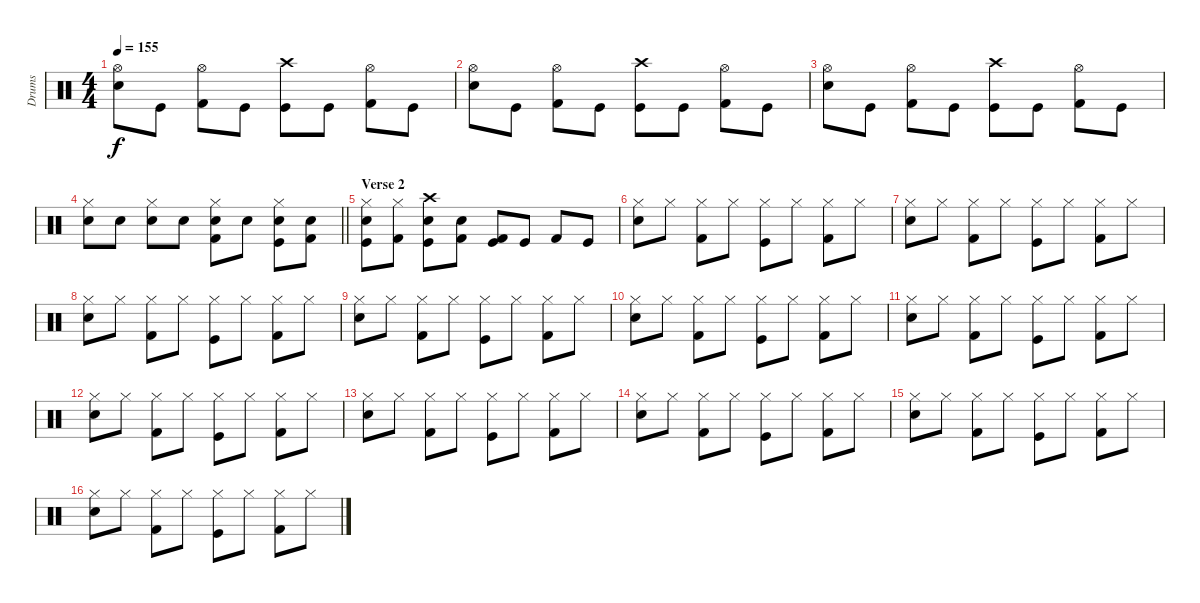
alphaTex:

\track ("Drums" "Drums") {instrument percussion}
\staff {score}
\articulation defaults
\ts (4 4)
\tempo 155
\clef neutral
\ks c
("Electric Snare (hit)" "Hi-Hat (open)").8{dy f} "Kick (hit)".8 ("Kick (hit) 2" "Hi-Hat (open)").8 "Kick (hit)".8 ("Kick (hit)" "Crash high (hit)").8 "Kick (hit)".8 ("Kick (hit) 2" "Hi-Hat (open)").8 "Kick (hit)".8 |
("Electric Snare (hit)" "Hi-Hat (open)").8 "Kick (hit)".8 ("Kick (hit) 2" "Hi-Hat (open)").8 "Kick (hit)".8 ("Kick (hit)" "Crash high (hit)").8 "Kick (hit)".8 ("Kick (hit) 2" "Hi-Hat (open)").8 "Kick (hit)".8 |
("Electric Snare (hit)" "Hi-Hat (open)").8 "Kick (hit)".8 ("Kick (hit) 2" "Hi-Hat (open)").8 "Kick (hit)".8 ("Kick (hit)" "Crash high (hit)").8 "Kick (hit)".8 ("Kick (hit) 2" "Hi-Hat (open)").8 "Kick (hit)".8 |
\barLineRight lightlight
("Electric Snare (hit)" "Hi-Hat (closed)").8 "Electric Snare (hit)".8 ("Electric Snare (hit)" "Hi-Hat (closed)").8 "Electric Snare (hit)".8 ("Electric Snare (hit)" "Kick (hit) 2" "Hi-Hat (closed)").8 "Electric Snare (hit)".8 ("Electric Snare (hit)" "Kick (hit)" "Hi-Hat (closed)").8 ("Electric Snare (hit)" "Kick (hit) 2").8 |
\section ("" "Verse 2")
("Electric Snare (hit)" "Kick (hit)" "Hi-Hat (closed)").8 ("Kick (hit) 2" "Hi-Hat (closed)").8 ("Electric Snare (hit)" "Kick (hit)" "Crash high (hit)").8 ("Electric Snare (hit)" "Kick (hit) 2").8 ("Kick (hit)" "Kick (hit) 2").8 "Kick (hit)".8 "Kick (hit) 2".8 "Kick (hit)".8 |
("Electric Snare (hit)" "Hi-Hat (closed)").8 "Hi-Hat (closed)".8 ("Kick (hit) 2" "Hi-Hat (closed)").8 "Hi-Hat (closed)".8 ("Kick (hit)" "Hi-Hat (closed)").8 "Hi-Hat (closed)".8 ("Kick (hit) 2" "Hi-Hat (closed)").8 "Hi-Hat (closed)".8 |
("Electric Snare (hit)" "Hi-Hat (closed)").8 "Hi-Hat (closed)".8 ("Kick (hit) 2" "Hi-Hat (closed)").8 "Hi-Hat (closed)".8 ("Kick (hit)" "Hi-Hat (closed)").8 "Hi-Hat (closed)".8 ("Kick (hit) 2" "Hi-Hat (closed)").8 "Hi-Hat (closed)".8 |
("Electric Snare (hit)" "Hi-Hat (closed)").8 "Hi-Hat (closed)".8 ("Kick (hit) 2" "Hi-Hat (closed)").8 "Hi-Hat (closed)".8 ("Kick (hit)" "Hi-Hat (closed)").8 "Hi-Hat (closed)".8 ("Kick (hit) 2" "Hi-Hat (closed)").8 "Hi-Hat (closed)".8 |
("Electric Snare (hit)" "Hi-Hat (closed)").8 "Hi-Hat (closed)".8 ("Kick (hit) 2" "Hi-Hat (closed)").8 "Hi-Hat (closed)".8 ("Kick (hit)" "Hi-Hat (closed)").8 "Hi-Hat (closed)".8 ("Kick (hit) 2" "Hi-Hat (closed)").8 "Hi-Hat (closed)".8 |
("Electric Snare (hit)" "Hi-Hat (closed)").8 "Hi-Hat (closed)".8 ("Kick (hit) 2" "Hi-Hat (closed)").8 "Hi-Hat (closed)".8 ("Kick (hit)" "Hi-Hat (closed)").8 "Hi-Hat (closed)".8 ("Kick (hit) 2" "Hi-Hat (closed)").8 "Hi-Hat (closed)".8 |
("Electric Snare (hit)" "Hi-Hat (closed)").8 "Hi-Hat (closed)".8 ("Kick (hit) 2" "Hi-Hat (closed)").8 "Hi-Hat (closed)".8 ("Kick (hit)" "Hi-Hat (closed)").8 "Hi-Hat (closed)".8 ("Kick (hit) 2" "Hi-Hat (closed)").8 "Hi-Hat (closed)".8 |
("Electric Snare (hit)" "Hi-Hat (closed)").8 "Hi-Hat (closed)".8 ("Kick (hit) 2" "Hi-Hat (closed)").8 "Hi-Hat (closed)".8 ("Kick (hit)" "Hi-Hat (closed)").8 "Hi-Hat (closed)".8 ("Kick (hit) 2" "Hi-Hat (closed)").8 "Hi-Hat (closed)".8 |
("Electric Snare (hit)" "Hi-Hat (closed)").8 "Hi-Hat (closed)".8 ("Kick (hit) 2" "Hi-Hat (closed)").8 "Hi-Hat (closed)".8 ("Kick (hit)" "Hi-Hat (closed)").8 "Hi-Hat (closed)".8 ("Kick (hit) 2" "Hi-Hat (closed)").8 "Hi-Hat (closed)".8 |
("Electric Snare (hit)" "Hi-Hat (closed)").8 "Hi-Hat (closed)".8 ("Kick (hit) 2" "Hi-Hat (closed)").8 "Hi-Hat (closed)".8 ("Kick (hit)" "Hi-Hat (closed)").8 "Hi-Hat (closed)".8 ("Kick (hit) 2" "Hi-Hat (closed)").8 "Hi-Hat (closed)".8 |
("Electric Snare (hit)" "Hi-Hat (closed)").8 "Hi-Hat (closed)".8 ("Kick (hit) 2" "Hi-Hat (closed)").8 "Hi-Hat (closed)".8 ("Kick (hit)" "Hi-Hat (closed)").8 "Hi-Hat (closed)".8 ("Kick (hit) 2" "Hi-Hat (closed)").8 "Hi-Hat (closed)".8 |
("Electric Snare (hit)" "Hi-Hat (closed)").8 "Hi-Hat (closed)".8 ("Kick (hit) 2" "Hi-Hat (closed)").8 "Hi-Hat (closed)".8 ("Kick (hit)" "Hi-Hat (closed)").8 "Hi-Hat (closed)".8 ("Kick (hit) 2" "Hi-Hat (closed)").8 "Hi-Hat (closed)".8
